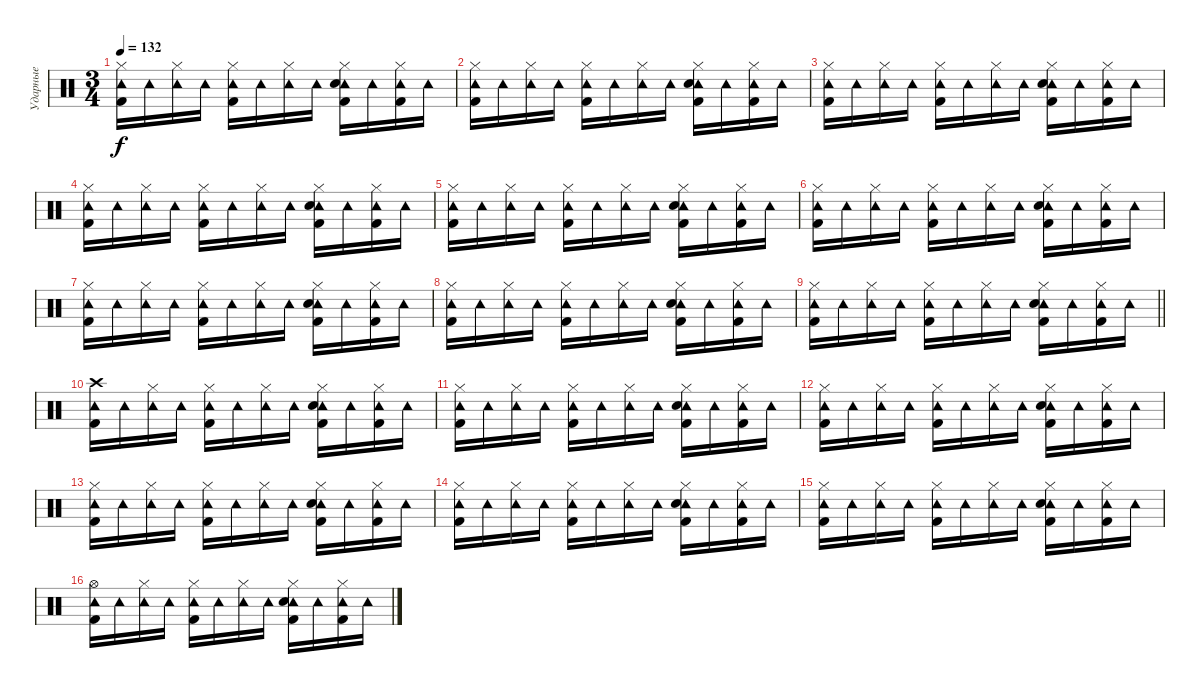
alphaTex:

\track ("Ударные" "Ударные") {instrument percussion}
\staff {score}
\articulation defaults
\ts (3 4)
\tempo 132
\clef neutral
\ks c
("Hi-Hat (closed)" "Tambourine (hit)" "Kick (hit) 2").16{dy f} "Tambourine (hit)".16 ("Hi-Hat (closed)" "Tambourine (hit)").16 "Tambourine (hit)".16 ("Hi-Hat (closed)" "Tambourine (hit)" "Kick (hit) 2").16 "Tambourine (hit)".16 ("Hi-Hat (closed)" "Tambourine (hit)").16 "Tambourine (hit)".16 ("Hi-Hat (closed)" "Tambourine (hit)" "Kick (hit) 2" "Electric Snare (hit)").16 "Tambourine (hit)".16 ("Hi-Hat (closed)" "Tambourine (hit)" "Kick (hit) 2").16 "Tambourine (hit)".16 |
("Hi-Hat (closed)" "Tambourine (hit)" "Kick (hit) 2").16 "Tambourine (hit)".16 ("Hi-Hat (closed)" "Tambourine (hit)").16 "Tambourine (hit)".16 ("Hi-Hat (closed)" "Tambourine (hit)" "Kick (hit) 2").16 "Tambourine (hit)".16 ("Hi-Hat (closed)" "Tambourine (hit)").16 "Tambourine (hit)".16 ("Hi-Hat (closed)" "Tambourine (hit)" "Kick (hit) 2" "Electric Snare (hit)").16 "Tambourine (hit)".16 ("Hi-Hat (closed)" "Tambourine (hit)" "Kick (hit) 2").16 "Tambourine (hit)".16 |
("Hi-Hat (closed)" "Tambourine (hit)" "Kick (hit) 2").16 "Tambourine (hit)".16 ("Hi-Hat (closed)" "Tambourine (hit)").16 "Tambourine (hit)".16 ("Hi-Hat (closed)" "Tambourine (hit)" "Kick (hit) 2").16 "Tambourine (hit)".16 ("Hi-Hat (closed)" "Tambourine (hit)").16 "Tambourine (hit)".16 ("Hi-Hat (closed)" "Tambourine (hit)" "Kick (hit) 2" "Electric Snare (hit)").16 "Tambourine (hit)".16 ("Hi-Hat (closed)" "Tambourine (hit)" "Kick (hit) 2").16 "Tambourine (hit)".16 |
("Hi-Hat (closed)" "Tambourine (hit)" "Kick (hit) 2").16 "Tambourine (hit)".16 ("Hi-Hat (closed)" "Tambourine (hit)").16 "Tambourine (hit)".16 ("Hi-Hat (closed)" "Tambourine (hit)" "Kick (hit) 2").16 "Tambourine (hit)".16 ("Hi-Hat (closed)" "Tambourine (hit)").16 "Tambourine (hit)".16 ("Hi-Hat (closed)" "Tambourine (hit)" "Kick (hit) 2" "Electric Snare (hit)").16 "Tambourine (hit)".16 ("Hi-Hat (closed)" "Tambourine (hit)" "Kick (hit) 2").16 "Tambourine (hit)".16 |
("Hi-Hat (closed)" "Tambourine (hit)" "Kick (hit) 2").16 "Tambourine (hit)".16 ("Hi-Hat (closed)" "Tambourine (hit)").16 "Tambourine (hit)".16 ("Hi-Hat (closed)" "Tambourine (hit)" "Kick (hit) 2").16 "Tambourine (hit)".16 ("Hi-Hat (closed)" "Tambourine (hit)").16 "Tambourine (hit)".16 ("Hi-Hat (closed)" "Tambourine (hit)" "Kick (hit) 2" "Electric Snare (hit)").16 "Tambourine (hit)".16 ("Hi-Hat (closed)" "Tambourine (hit)" "Kick (hit) 2").16 "Tambourine (hit)".16 |
("Hi-Hat (closed)" "Tambourine (hit)" "Kick (hit) 2").16 "Tambourine (hit)".16 ("Hi-Hat (closed)" "Tambourine (hit)").16 "Tambourine (hit)".16 ("Hi-Hat (closed)" "Tambourine (hit)" "Kick (hit) 2").16 "Tambourine (hit)".16 ("Hi-Hat (closed)" "Tambourine (hit)").16 "Tambourine (hit)".16 ("Hi-Hat (closed)" "Tambourine (hit)" "Kick (hit) 2" "Electric Snare (hit)").16 "Tambourine (hit)".16 ("Hi-Hat (closed)" "Tambourine (hit)" "Kick (hit) 2").16 "Tambourine (hit)".16 |
("Hi-Hat (closed)" "Tambourine (hit)" "Kick (hit) 2").16 "Tambourine (hit)".16 ("Hi-Hat (closed)" "Tambourine (hit)").16 "Tambourine (hit)".16 ("Hi-Hat (closed)" "Tambourine (hit)" "Kick (hit) 2").16 "Tambourine (hit)".16 ("Hi-Hat (closed)" "Tambourine (hit)").16 "Tambourine (hit)".16 ("Hi-Hat (closed)" "Tambourine (hit)" "Kick (hit) 2" "Electric Snare (hit)").16 "Tambourine (hit)".16 ("Hi-Hat (closed)" "Tambourine (hit)" "Kick (hit) 2").16 "Tambourine (hit)".16 |
("Hi-Hat (closed)" "Tambourine (hit)" "Kick (hit) 2").16 "Tambourine (hit)".16 ("Hi-Hat (closed)" "Tambourine (hit)").16 "Tambourine (hit)".16 ("Hi-Hat (closed)" "Tambourine (hit)" "Kick (hit) 2").16 "Tambourine (hit)".16 ("Hi-Hat (closed)" "Tambourine (hit)").16 "Tambourine (hit)".16 ("Hi-Hat (closed)" "Tambourine (hit)" "Kick (hit) 2" "Electric Snare (hit)").16 "Tambourine (hit)".16 ("Hi-Hat (closed)" "Tambourine (hit)" "Kick (hit) 2").16 "Tambourine (hit)".16 |
\barLineRight lightlight
("Hi-Hat (closed)" "Tambourine (hit)" "Kick (hit) 2").16 "Tambourine (hit)".16 ("Hi-Hat (closed)" "Tambourine (hit)").16 "Tambourine (hit)".16 ("Hi-Hat (closed)" "Tambourine (hit)" "Kick (hit) 2").16 "Tambourine (hit)".16 ("Hi-Hat (closed)" "Tambourine (hit)").16 "Tambourine (hit)".16 ("Hi-Hat (closed)" "Tambourine (hit)" "Kick (hit) 2" "Electric Snare (hit)").16 "Tambourine (hit)".16 ("Hi-Hat (closed)" "Tambourine (hit)" "Kick (hit) 2").16 "Tambourine (hit)".16 |
\section ("" "")
("Crash high (hit)" "Tambourine (hit)" "Kick (hit) 2").16 "Tambourine (hit)".16 ("Hi-Hat (closed)" "Tambourine (hit)").16 "Tambourine (hit)".16 ("Hi-Hat (closed)" "Tambourine (hit)" "Kick (hit) 2").16 "Tambourine (hit)".16 ("Hi-Hat (closed)" "Tambourine (hit)").16 "Tambourine (hit)".16 ("Hi-Hat (closed)" "Tambourine (hit)" "Kick (hit) 2" "Electric Snare (hit)").16 "Tambourine (hit)".16 ("Hi-Hat (closed)" "Tambourine (hit)" "Kick (hit) 2").16 "Tambourine (hit)".16 |
("Hi-Hat (closed)" "Tambourine (hit)" "Kick (hit) 2").16 "Tambourine (hit)".16 ("Hi-Hat (closed)" "Tambourine (hit)").16 "Tambourine (hit)".16 ("Hi-Hat (closed)" "Tambourine (hit)" "Kick (hit) 2").16 "Tambourine (hit)".16 ("Hi-Hat (closed)" "Tambourine (hit)").16 "Tambourine (hit)".16 ("Hi-Hat (closed)" "Tambourine (hit)" "Kick (hit) 2" "Electric Snare (hit)").16 "Tambourine (hit)".16 ("Hi-Hat (closed)" "Tambourine (hit)" "Kick (hit) 2").16 "Tambourine (hit)".16 |
("Hi-Hat (closed)" "Tambourine (hit)" "Kick (hit) 2").16 "Tambourine (hit)".16 ("Hi-Hat (closed)" "Tambourine (hit)").16 "Tambourine (hit)".16 ("Hi-Hat (closed)" "Tambourine (hit)" "Kick (hit) 2").16 "Tambourine (hit)".16 ("Hi-Hat (closed)" "Tambourine (hit)").16 "Tambourine (hit)".16 ("Hi-Hat (closed)" "Tambourine (hit)" "Kick (hit) 2" "Electric Snare (hit)").16 "Tambourine (hit)".16 ("Hi-Hat (closed)" "Tambourine (hit)" "Kick (hit) 2").16 "Tambourine (hit)".16 |
("Hi-Hat (closed)" "Tambourine (hit)" "Kick (hit) 2").16 "Tambourine (hit)".16 ("Hi-Hat (closed)" "Tambourine (hit)").16 "Tambourine (hit)".16 ("Hi-Hat (closed)" "Tambourine (hit)" "Kick (hit) 2").16 "Tambourine (hit)".16 ("Hi-Hat (closed)" "Tambourine (hit)").16 "Tambourine (hit)".16 ("Hi-Hat (closed)" "Tambourine (hit)" "Kick (hit) 2" "Electric Snare (hit)").16 "Tambourine (hit)".16 ("Hi-Hat (closed)" "Tambourine (hit)" "Kick (hit) 2").16 "Tambourine (hit)".16 |
("Hi-Hat (closed)" "Tambourine (hit)" "Kick (hit) 2").16 "Tambourine (hit)".16 ("Hi-Hat (closed)" "Tambourine (hit)").16 "Tambourine (hit)".16 ("Hi-Hat (closed)" "Tambourine (hit)" "Kick (hit) 2").16 "Tambourine (hit)".16 ("Hi-Hat (closed)" "Tambourine (hit)").16 "Tambourine (hit)".16 ("Hi-Hat (closed)" "Tambourine (hit)" "Kick (hit) 2" "Electric Snare (hit)").16 "Tambourine (hit)".16 ("Hi-Hat (closed)" "Tambourine (hit)" "Kick (hit) 2").16 "Tambourine (hit)".16 |
("Hi-Hat (closed)" "Tambourine (hit)" "Kick (hit) 2").16 "Tambourine (hit)".16 ("Hi-Hat (closed)" "Tambourine (hit)").16 "Tambourine (hit)".16 ("Hi-Hat (closed)" "Tambourine (hit)" "Kick (hit) 2").16 "Tambourine (hit)".16 ("Hi-Hat (closed)" "Tambourine (hit)").16 "Tambourine (hit)".16 ("Hi-Hat (closed)" "Tambourine (hit)" "Kick (hit) 2" "Electric Snare (hit)").16 "Tambourine (hit)".16 ("Hi-Hat (closed)" "Tambourine (hit)" "Kick (hit) 2").16 "Tambourine (hit)".16 |
("Hi-Hat (open)" "Tambourine (hit)" "Kick (hit) 2").16 "Tambourine (hit)".16 ("Hi-Hat (closed)" "Tambourine (hit)").16 "Tambourine (hit)".16 ("Hi-Hat (closed)" "Tambourine (hit)" "Kick (hit) 2").16 "Tambourine (hit)".16 ("Hi-Hat (closed)" "Tambourine (hit)").16 "Tambourine (hit)".16 ("Hi-Hat (closed)" "Tambourine (hit)" "Kick (hit) 2" "Electric Snare (hit)").16 "Tambourine (hit)".16 ("Hi-Hat (closed)" "Tambourine (hit)" "Kick (hit) 2").16 "Tambourine (hit)".16
